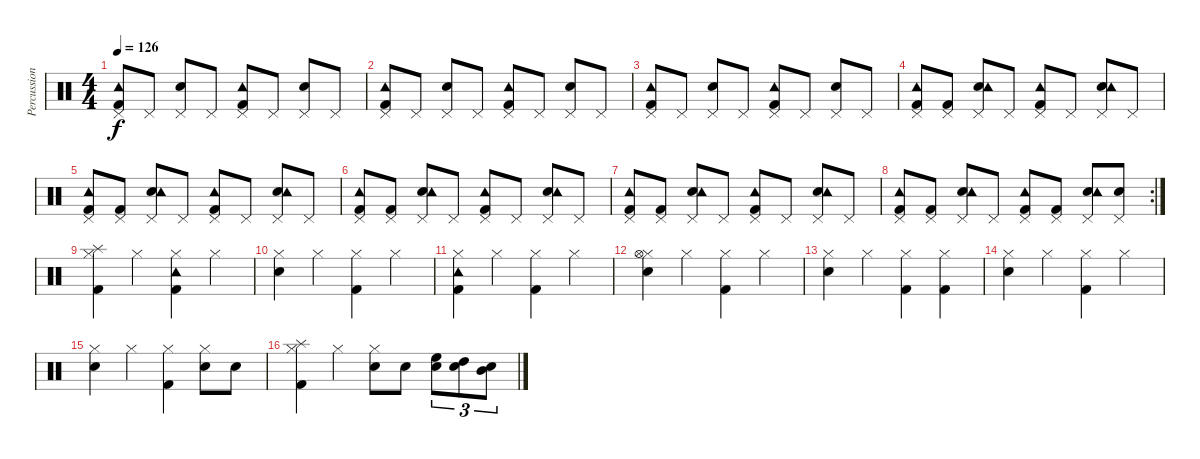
\track ("Percussion" "Percussion") {instrument percussion}
\staff {score}
\articulation defaults
\ts (4 4)
\tempo 126
\clef neutral
\ks c
("Kick (hit) 2" "Pedal Hi-Hat (hit)" "Tambourine (hit)").8{dy f} "Pedal Hi-Hat (hit)".8 ("Electric Snare (hit)" "Pedal Hi-Hat (hit)").8 "Pedal Hi-Hat (hit)".8 ("Kick (hit) 2" "Pedal Hi-Hat (hit)" "Tambourine (hit)").8 "Pedal Hi-Hat (hit)".8 ("Electric Snare (hit)" "Pedal Hi-Hat (hit)").8 "Pedal Hi-Hat (hit)".8 |
("Kick (hit) 2" "Pedal Hi-Hat (hit)" "Tambourine (hit)").8 "Pedal Hi-Hat (hit)".8 ("Electric Snare (hit)" "Pedal Hi-Hat (hit)").8 "Pedal Hi-Hat (hit)".8 ("Kick (hit) 2" "Pedal Hi-Hat (hit)" "Tambourine (hit)").8 "Pedal Hi-Hat (hit)".8 ("Electric Snare (hit)" "Pedal Hi-Hat (hit)").8 "Pedal Hi-Hat (hit)".8 |
("Kick (hit) 2" "Pedal Hi-Hat (hit)" "Tambourine (hit)").8 "Pedal Hi-Hat (hit)".8 ("Electric Snare (hit)" "Pedal Hi-Hat (hit)").8 "Pedal Hi-Hat (hit)".8 ("Kick (hit) 2" "Pedal Hi-Hat (hit)" "Tambourine (hit)").8 "Pedal Hi-Hat (hit)".8 ("Electric Snare (hit)" "Pedal Hi-Hat (hit)").8 "Pedal Hi-Hat (hit)".8 |
("Kick (hit) 2" "Pedal Hi-Hat (hit)" "Tambourine (hit)").8 ("Kick (hit) 2" "Pedal Hi-Hat (hit)").8 ("Electric Snare (hit)" "Pedal Hi-Hat (hit)" "Tambourine (hit)").8 "Pedal Hi-Hat (hit)".8 ("Kick (hit) 2" "Pedal Hi-Hat (hit)" "Tambourine (hit)").8 "Pedal Hi-Hat (hit)".8 ("Electric Snare (hit)" "Pedal Hi-Hat (hit)" "Tambourine (hit)").8 "Pedal Hi-Hat (hit)".8 |
("Kick (hit) 2" "Pedal Hi-Hat (hit)" "Tambourine (hit)").8 ("Kick (hit) 2" "Pedal Hi-Hat (hit)").8 ("Electric Snare (hit)" "Pedal Hi-Hat (hit)" "Tambourine (hit)").8 "Pedal Hi-Hat (hit)".8 ("Kick (hit) 2" "Pedal Hi-Hat (hit)" "Tambourine (hit)").8 "Pedal Hi-Hat (hit)".8 ("Electric Snare (hit)" "Pedal Hi-Hat (hit)" "Tambourine (hit)").8 "Pedal Hi-Hat (hit)".8 |
("Kick (hit) 2" "Pedal Hi-Hat (hit)" "Tambourine (hit)").8 ("Kick (hit) 2" "Pedal Hi-Hat (hit)").8 ("Electric Snare (hit)" "Pedal Hi-Hat (hit)" "Tambourine (hit)").8 "Pedal Hi-Hat (hit)".8 ("Kick (hit) 2" "Pedal Hi-Hat (hit)" "Tambourine (hit)").8 "Pedal Hi-Hat (hit)".8 ("Electric Snare (hit)" "Pedal Hi-Hat (hit)" "Tambourine (hit)").8 "Pedal Hi-Hat (hit)".8 |
("Kick (hit) 2" "Pedal Hi-Hat (hit)" "Tambourine (hit)").8 ("Kick (hit) 2" "Pedal Hi-Hat (hit)").8 ("Electric Snare (hit)" "Pedal Hi-Hat (hit)" "Tambourine (hit)").8 "Pedal Hi-Hat (hit)".8 ("Kick (hit) 2" "Pedal Hi-Hat (hit)" "Tambourine (hit)").8 "Pedal Hi-Hat (hit)".8 ("Electric Snare (hit)" "Pedal Hi-Hat (hit)" "Tambourine (hit)").8 "Pedal Hi-Hat (hit)".8 |
\rc 2
("Kick (hit) 2" "Pedal Hi-Hat (hit)" "Tambourine (hit)").8 ("Kick (hit) 2" "Pedal Hi-Hat (hit)").8 ("Electric Snare (hit)" "Pedal Hi-Hat (hit)" "Tambourine (hit)").8 "Pedal Hi-Hat (hit)".8 ("Kick (hit) 2" "Pedal Hi-Hat (hit)" "Tambourine (hit)").8 ("Kick (hit) 2" "Pedal Hi-Hat (hit)").8 ("Electric Snare (hit)" "Pedal Hi-Hat (hit)" "Tambourine (hit)").8 ("Electric Snare (hit)" "Pedal Hi-Hat (hit)").8 |
("Hi-Hat (closed)" "Kick (hit) 2" "Splash (hit)").4 "Hi-Hat (closed)".4 ("Hi-Hat (closed)" "Tambourine (hit)" "Kick (hit) 2").4 "Hi-Hat (closed)".4 |
("Hi-Hat (closed)" "Electric Snare (hit)").4 "Hi-Hat (closed)".4 ("Hi-Hat (closed)" "Kick (hit) 2").4 "Hi-Hat (closed)".4 |
("Hi-Hat (closed)" "Kick (hit) 2" "Tambourine (hit)").4 "Hi-Hat (closed)".4 ("Hi-Hat (closed)" "Kick (hit) 2").4 "Hi-Hat (closed)".4 |
("Hi-Hat (closed)" "Electric Snare (hit)" "Hi-Hat (open)").4 "Hi-Hat (closed)".4 ("Hi-Hat (closed)" "Kick (hit) 2").4 "Hi-Hat (closed)".4 |
("Hi-Hat (closed)" "Electric Snare (hit)").4 "Hi-Hat (closed)".4 ("Hi-Hat (closed)" "Kick (hit) 2").4 ("Hi-Hat (closed)" "Kick (hit) 2").4 |
("Hi-Hat (closed)" "Electric Snare (hit)").4 "Hi-Hat (closed)".4 ("Hi-Hat (closed)" "Kick (hit) 2").4 "Hi-Hat (closed)".4 |
("Hi-Hat (closed)" "Electric Snare (hit)").4 "Hi-Hat (closed)".4 ("Hi-Hat (closed)" "Kick (hit) 2").4 ("Hi-Hat (closed)" "Electric Snare (hit)").8 "Electric Snare (hit)".8 |
("Hi-Hat (closed)" "Splash (hit)" "Kick (hit) 2").4 "Hi-Hat (closed)".4 ("Hi-Hat (closed)" "Electric Snare (hit)").8 "Electric Snare (hit)".8 ("High Floor Tom (hit)" "Electric Snare (hit)").8{tu (3 2)} ("High Tom (hit)" "Electric Snare (hit)").8{tu (3 2)} ("Mid Tom (hit)" "Electric Snare (hit)").8{tu (3 2)}
